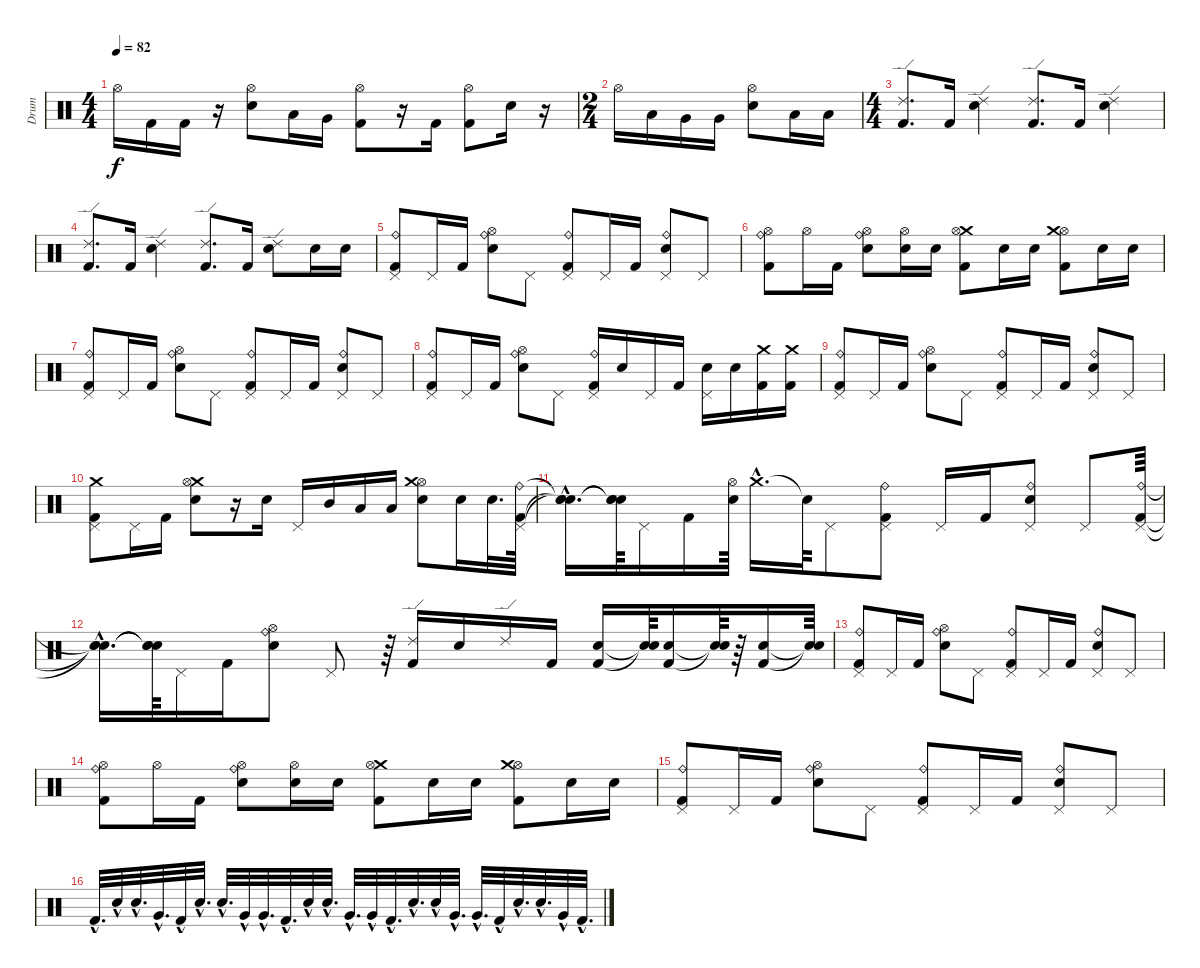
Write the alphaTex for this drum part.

\track ("Drum" "Drum") {instrument percussion}
\staff {score}
\articulation defaults
\ts (4 4)
\tempo 82
\clef neutral
\ks c "Hi-Hat (open)".16{dy f} "Kick (hit) 2".16 "Kick (hit) 2".16
r.16 ("Hi-Hat (open)" "Electric Snare (hit)").8 "Low Tom (hit)".16 "Very Low Tom (hit)".16 ("Kick (hit) 2" "Hi-Hat (open)").8 r.16 "Kick (hit) 2".16 ("Kick (hit) 2" "Hi-Hat (open)").8 "Electric Snare (hit)".16 r.16 |
\ts (2 4)
"Hi-Hat (open)".16 "Low Tom (hit)".16 "Very Low Tom (hit)".16 "Very Low Tom (hit)".16 ("Hi-Hat (open)" "Electric Snare (hit)").8 "Low Floor Tom (hit)".16 "Low Floor Tom (hit)".16 |
\ts (4 4)
("Kick (hit) 2" "Ride (edge) 2").8{d} "Kick (hit) 2".16 ("Electric Snare (hit)" "Ride (edge) 2").4 ("Kick (hit) 2" "Ride (edge) 2").8{d} "Kick (hit) 2".16 ("Electric Snare (hit)" "Ride (edge) 2").4 |
("Kick (hit) 2" "Ride (edge) 2").8{d} "Kick (hit) 2".16 ("Electric Snare (hit)" "Ride (edge) 2").4 ("Kick (hit) 2" "Ride (edge) 2").8{d} "Kick (hit) 2".16 ("Electric Snare (hit)" "Ride (edge) 2").8 "Electric Snare (hit)".16 "Electric Snare (hit)".16 |
("Pedal Hi-Hat (hit)" "Kick (hit) 2" "Ride (bell)").8 "Pedal Hi-Hat (hit)".16 "Kick (hit) 2".16 ("Hi-Hat (open)" "Electric Snare (hit)" "Ride (bell)").8 "Pedal Hi-Hat (hit)".8 ("Pedal Hi-Hat (hit)" "Kick (hit) 2" "Ride (bell)").8 "Pedal Hi-Hat (hit)".16 "Kick (hit) 2".16 ("Pedal Hi-Hat (hit)" "Electric Snare (hit)" "Ride (bell)").8 "Pedal Hi-Hat (hit)".8 |
("Kick (hit) 2" "Ride (bell)" "Hi-Hat (open)").8 "Hi-Hat (open)".16 "Kick (hit) 2".16 ("Electric Snare (hit)" "Ride (bell)" "Hi-Hat (open)").8 ("Electric Snare (hit)" "Hi-Hat (open)").16 "Electric Snare (hit)".16 ("Crash medium (hit)" "Hi-Hat (open)" "Kick (hit) 2").8 "Electric Snare (hit)".16 "Electric Snare (hit)".16 ("Hi-Hat (open)" "Crash medium (hit)" "Kick (hit) 2").8 "Electric Snare (hit)".16 "Electric Snare (hit)".16 |
("Pedal Hi-Hat (hit)" "Kick (hit) 2" "Ride (bell)").8 "Pedal Hi-Hat (hit)".16 "Kick (hit) 2".16 ("Hi-Hat (open)" "Electric Snare (hit)" "Ride (bell)").8 "Pedal Hi-Hat (hit)".8 ("Pedal Hi-Hat (hit)" "Kick (hit) 2" "Ride (bell)").8 "Pedal Hi-Hat (hit)".16 "Kick (hit) 2".16 ("Pedal Hi-Hat (hit)" "Electric Snare (hit)" "Ride (bell)").8 "Pedal Hi-Hat (hit)".8 |
("Pedal Hi-Hat (hit)" "Kick (hit) 2" "Ride (bell)").8 "Pedal Hi-Hat (hit)".16 "Kick (hit) 2".16 ("Hi-Hat (open)" "Electric Snare (hit)" "Ride (bell)").8 "Pedal Hi-Hat (hit)".8 ("Kick (hit) 2" "Pedal Hi-Hat (hit)" "Ride (bell)").16 "Electric Snare (hit)".16 "Pedal Hi-Hat (hit)".16 "Kick (hit) 2".16 ("Electric Snare (hit)" "Pedal Hi-Hat (hit)").16 "Electric Snare (hit)".16 ("Crash medium (hit)" "Kick (hit) 2").16 ("Crash medium (hit)" "Kick (hit) 2").16 |
("Pedal Hi-Hat (hit)" "Kick (hit) 2" "Ride (bell)").8 "Pedal Hi-Hat (hit)".16 "Kick (hit) 2".16 ("Hi-Hat (open)" "Electric Snare (hit)" "Ride (bell)").8 "Pedal Hi-Hat (hit)".8 ("Pedal Hi-Hat (hit)" "Kick (hit) 2" "Ride (bell)").8 "Pedal Hi-Hat (hit)".16 "Kick (hit) 2".16 ("Pedal Hi-Hat (hit)" "Electric Snare (hit)" "Ride (bell)").8 "Pedal Hi-Hat (hit)".8 |
("Crash medium (hit)" "Pedal Hi-Hat (hit)" "Kick (hit) 2").8 "Pedal Hi-Hat (hit)".16 "Kick (hit) 2".16 ("Crash medium (hit)" "Hi-Hat (open)" "Electric Snare (hit)").8 r.16 "Electric Snare (hit)".16 "Pedal Hi-Hat (hit)".16 "Mid Tom (hit)".16 "Low Tom (hit)".16 "Low Tom (hit)".16 ("Hi-Hat (open)" "Crash medium (hit)" "Electric Snare (hit)").8 "Electric Snare (hit)".16 "Electric Snare (hit)".32{d} ("Pedal Hi-Hat (hit)" "Kick (hit) 2" "Ride (bell)").64 |
("Snare (hit)"{hac t} "Snare (hit)"{hac t} "Snare (hit)"{hac t}).16{d} ("Snare (hit)"{t} "Snare (hit)"{t} "Snare (hit)"{t}).64 "Pedal Hi-Hat (hit)".16 "Kick (hit) 2".16 ("Hi-Hat (open)" "Electric Snare (hit)").64 "Crash medium (hit)"{hac}.16{d} "Snare (hit)"{t}.64 "Pedal Hi-Hat (hit)".8 ("Pedal Hi-Hat (hit)" "Kick (hit) 2" "Ride (bell)").8 "Pedal Hi-Hat (hit)".16 "Kick (hit) 2".16 ("Pedal Hi-Hat (hit)" "Electric Snare (hit)" "Ride (bell)").8 "Pedal Hi-Hat (hit)".8 ("Pedal Hi-Hat (hit)" "Kick (hit) 2" "Ride (bell)").64 |
("Snare (hit)"{hac t} "Snare (hit)"{hac t} "Snare (hit)"{hac t}).16{d} ("Snare (hit)"{t} "Snare (hit)"{t} "Snare (hit)"{t}).64 "Pedal Hi-Hat (hit)".16 "Kick (hit) 2".16 ("Hi-Hat (open)" "Electric Snare (hit)" "Ride (bell)").8 "Pedal Hi-Hat (hit)".8 r.64 ("Kick (hit) 2" "Ride (edge) 2").16 "Electric Snare (hit)".16 "Ride (edge) 2".16 "Kick (hit) 2".16 ("Kick (hit) 2" "Electric Snare (hit)").16 ("Snare (hit)"{t} "Snare (hit)"{t}).64 ("Kick (hit) 2" "Electric Snare (hit)").16 ("Snare (hit)"{t} "Snare (hit)"{t}).64 r.64 ("Kick (hit) 2" "Electric Snare (hit)").16 ("Snare (hit)"{t} "Snare (hit)"{t}).64 |
("Pedal Hi-Hat (hit)" "Kick (hit) 2" "Ride (bell)").8 "Pedal Hi-Hat (hit)".16 "Kick (hit) 2".16 ("Hi-Hat (open)" "Electric Snare (hit)" "Ride (bell)").8 "Pedal Hi-Hat (hit)".8 ("Pedal Hi-Hat (hit)" "Kick (hit) 2" "Ride (bell)").8 "Pedal Hi-Hat (hit)".16 "Kick (hit) 2".16 ("Pedal Hi-Hat (hit)" "Electric Snare (hit)" "Ride (bell)").8 "Pedal Hi-Hat (hit)".8 |
("Kick (hit) 2" "Ride (bell)" "Hi-Hat (open)").8 "Hi-Hat (open)".16 "Kick (hit) 2".16 ("Electric Snare (hit)" "Ride (bell)" "Hi-Hat (open)").8 ("Electric Snare (hit)" "Hi-Hat (open)").16 "Electric Snare (hit)".16 ("Crash medium (hit)" "Hi-Hat (open)" "Kick (hit) 2").8 "Electric Snare (hit)".16 "Electric Snare (hit)".16 ("Hi-Hat (open)" "Crash medium (hit)" "Kick (hit) 2").8 "Electric Snare (hit)".16 "Electric Snare (hit)".16 |
("Pedal Hi-Hat (hit)" "Kick (hit) 2" "Ride (bell)").8 "Pedal Hi-Hat (hit)".16 "Kick (hit) 2".16 ("Hi-Hat (open)" "Electric Snare (hit)" "Ride (bell)").8 "Pedal Hi-Hat (hit)".8 ("Pedal Hi-Hat (hit)" "Kick (hit) 2" "Ride (bell)").8 "Pedal Hi-Hat (hit)".16 "Kick (hit) 2".16 ("Pedal Hi-Hat (hit)" "Electric Snare (hit)" "Ride (bell)").8 "Pedal Hi-Hat (hit)".8 |
"Kick (hit) 2"{hac}.32{d} "Electric Snare (hit)"{hac}.32 "Electric Snare (hit)"{hac}.32{d} "Very Low Tom (hit)"{hac}.32{d} "Kick (hit) 2"{hac}.32 "Electric Snare (hit)"{hac}.32{d} "Electric Snare (hit)"{hac}.32{d} "Very Low Tom (hit)"{hac}.32 "Very Low Tom (hit)"{hac}.32{d} "Kick (hit) 2"{hac}.32{d} "Electric Snare (hit)"{hac}.32 "Electric Snare (hit)"{hac}.32{d} "Very Low Tom (hit)"{hac}.32{d} "Very Low Tom (hit)"{hac}.32 "Kick (hit) 2"{hac}.32{d} "Electric Snare (hit)"{hac}.32{d} "Electric Snare (hit)"{hac}.32 "Very Low Tom (hit)"{hac}.32{d} "Very Low Tom (hit)"{hac}.32{d} "Kick (hit) 2"{hac}.32 "Electric Snare (hit)"{hac}.32{d} "Electric Snare (hit)"{hac}.32{d} "Very Low Tom (hit)"{hac}.32 "Kick (hit) 2"{hac}.32{d}
